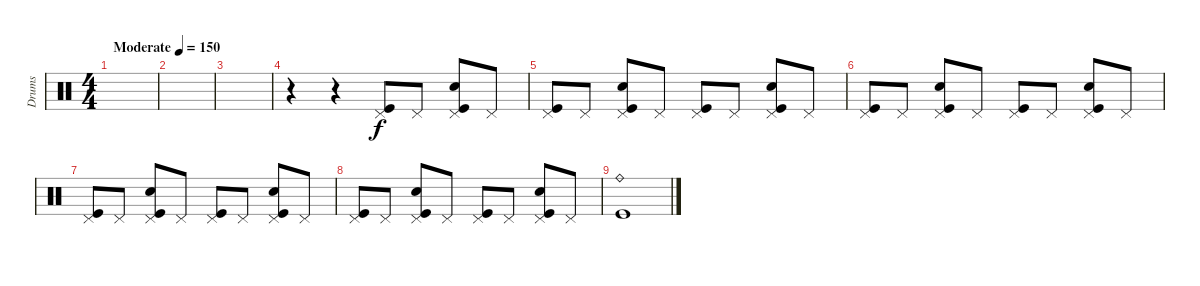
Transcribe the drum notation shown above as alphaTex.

\track ("Drums" "Drums") {instrument percussion}
\staff {score}
\articulation defaults
\ts (4 4)
\tempo (150 "Moderate")
\clef neutral
\ks c
|
|
|
r.4 r.4 ("Pedal Hi-Hat (hit)" "Kick (hit)").8 "Pedal Hi-Hat (hit)".8 ("Pedal Hi-Hat (hit)" "Snare (hit) 2" "Kick (hit)").8 "Pedal Hi-Hat (hit)".8 |
("Pedal Hi-Hat (hit)" "Kick (hit)").8 "Pedal Hi-Hat (hit)".8 ("Pedal Hi-Hat (hit)" "Snare (hit) 2" "Kick (hit)").8 "Pedal Hi-Hat (hit)".8 ("Pedal Hi-Hat (hit)" "Kick (hit)").8 "Pedal Hi-Hat (hit)".8 ("Pedal Hi-Hat (hit)" "Snare (hit) 2" "Kick (hit)").8 "Pedal Hi-Hat (hit)".8 |
("Pedal Hi-Hat (hit)" "Kick (hit)").8 "Pedal Hi-Hat (hit)".8 ("Pedal Hi-Hat (hit)" "Snare (hit) 2" "Kick (hit)").8 "Pedal Hi-Hat (hit)".8 ("Pedal Hi-Hat (hit)" "Kick (hit)").8 "Pedal Hi-Hat (hit)".8 ("Pedal Hi-Hat (hit)" "Snare (hit) 2" "Kick (hit)").8 "Pedal Hi-Hat (hit)".8 |
("Pedal Hi-Hat (hit)" "Kick (hit)").8 "Pedal Hi-Hat (hit)".8 ("Pedal Hi-Hat (hit)" "Snare (hit) 2" "Kick (hit)").8 "Pedal Hi-Hat (hit)".8 ("Pedal Hi-Hat (hit)" "Kick (hit)").8 "Pedal Hi-Hat (hit)".8 ("Pedal Hi-Hat (hit)" "Snare (hit) 2" "Kick (hit)").8 "Pedal Hi-Hat (hit)".8 |
("Pedal Hi-Hat (hit)" "Kick (hit)").8 "Pedal Hi-Hat (hit)".8 ("Pedal Hi-Hat (hit)" "Snare (hit) 2" "Kick (hit)").8 "Pedal Hi-Hat (hit)".8 ("Pedal Hi-Hat (hit)" "Kick (hit)").8 "Pedal Hi-Hat (hit)".8 ("Pedal Hi-Hat (hit)" "Snare (hit) 2" "Kick (hit)").8 "Pedal Hi-Hat (hit)".8 |
("Ride (bell)" "Kick (hit)").1
